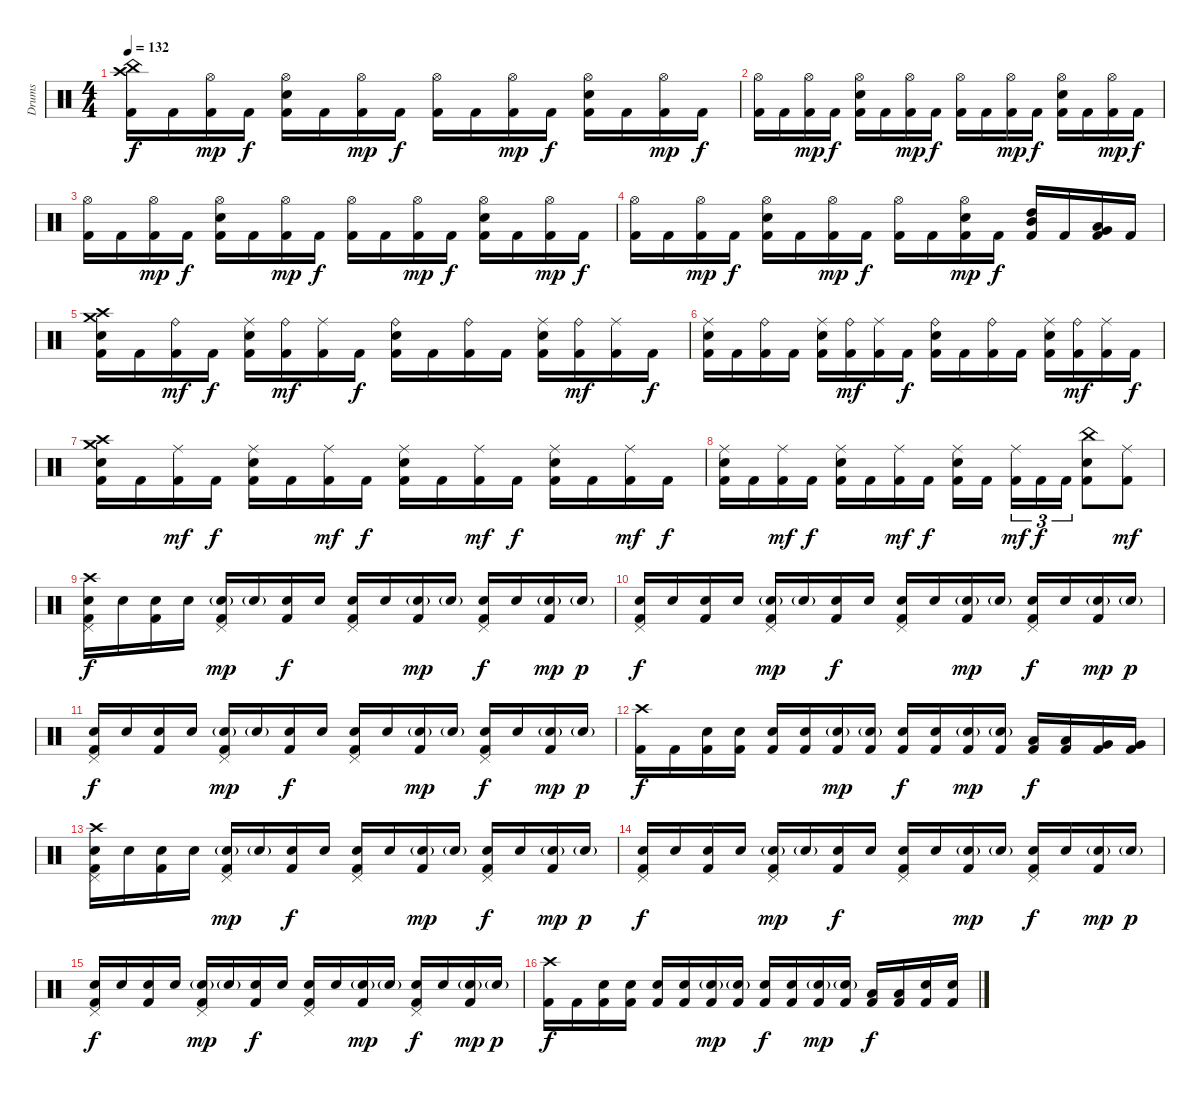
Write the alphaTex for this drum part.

\track ("Drums" "Drums") {instrument percussion}
\staff {score}
\articulation defaults
\ts (4 4)
\tempo 132
\clef neutral
\ks c
("Crash high (hit)" "China (hit)" "Kick (hit) 2").16{dy f} "Kick (hit) 2".16 ("Hi-Hat (open)" "Kick (hit) 2").16{dy mp} "Kick (hit) 2".16{dy f} ("Hi-Hat (open)" "Electric Snare (hit)" "Kick (hit) 2").16 "Kick (hit) 2".16 ("Hi-Hat (open)" "Kick (hit) 2").16{dy mp} "Kick (hit) 2".16{dy f} ("Hi-Hat (open)" "Kick (hit) 2").16 "Kick (hit) 2".16 ("Hi-Hat (open)" "Kick (hit) 2").16{dy mp} "Kick (hit) 2".16{dy f} ("Hi-Hat (open)" "Electric Snare (hit)" "Kick (hit) 2").16 "Kick (hit) 2".16 ("Hi-Hat (open)" "Kick (hit) 2").16{dy mp} "Kick (hit) 2".16{dy f} |
("Hi-Hat (open)" "Kick (hit) 2").16 "Kick (hit) 2".16 ("Hi-Hat (open)" "Kick (hit) 2").16{dy mp} "Kick (hit) 2".16{dy f} ("Hi-Hat (open)" "Electric Snare (hit)" "Kick (hit) 2").16 "Kick (hit) 2".16 ("Hi-Hat (open)" "Kick (hit) 2").16{dy mp} "Kick (hit) 2".16{dy f} ("Hi-Hat (open)" "Kick (hit) 2").16 "Kick (hit) 2".16 ("Hi-Hat (open)" "Kick (hit) 2").16{dy mp} "Kick (hit) 2".16{dy f} ("Hi-Hat (open)" "Electric Snare (hit)" "Kick (hit) 2").16 "Kick (hit) 2".16 ("Hi-Hat (open)" "Kick (hit) 2").16{dy mp} "Kick (hit) 2".16{dy f} |
("Hi-Hat (open)" "Kick (hit) 2").16 "Kick (hit) 2".16 ("Hi-Hat (open)" "Kick (hit) 2").16{dy mp} "Kick (hit) 2".16{dy f} ("Hi-Hat (open)" "Electric Snare (hit)" "Kick (hit) 2").16 "Kick (hit) 2".16 ("Hi-Hat (open)" "Kick (hit) 2").16{dy mp} "Kick (hit) 2".16{dy f} ("Hi-Hat (open)" "Kick (hit) 2").16 "Kick (hit) 2".16 ("Hi-Hat (open)" "Kick (hit) 2").16{dy mp} "Kick (hit) 2".16{dy f} ("Hi-Hat (open)" "Electric Snare (hit)" "Kick (hit) 2").16 "Kick (hit) 2".16 ("Hi-Hat (open)" "Kick (hit) 2").16{dy mp} "Kick (hit) 2".16{dy f} |
("Hi-Hat (open)" "Kick (hit) 2").16 "Kick (hit) 2".16 ("Hi-Hat (open)" "Kick (hit) 2").16{dy mp} "Kick (hit) 2".16{dy f} ("Hi-Hat (open)" "Electric Snare (hit)" "Kick (hit) 2").16 "Kick (hit) 2".16 ("Hi-Hat (open)" "Kick (hit) 2").16{dy mp} "Kick (hit) 2".16{dy f} ("Hi-Hat (open)" "Kick (hit) 2").16 "Kick (hit) 2".16 ("Hi-Hat (open)" "Electric Snare (hit)" "Kick (hit) 2").16{dy mp} "Kick (hit) 2".16{dy f} ("Mid Tom (hit)" "High Tom (hit)" "Kick (hit) 2").16 "Kick (hit) 2".16 ("Very Low Tom (hit)" "Low Tom (hit)" "Kick (hit) 2").16 "Kick (hit) 2".16 |
("Crash high (hit)" "Crash medium (hit)" "Electric Snare (hit)" "Kick (hit) 2").16 "Kick (hit) 2".16 ("Ride (bell)" "Kick (hit) 2").16{dy mf} "Kick (hit) 2".16{dy f} ("Ride (middle)" "Electric Snare (hit)" "Kick (hit) 2").16 ("Ride (bell)" "Kick (hit) 2").16{dy mf} ("Ride (middle)" "Kick (hit) 2").16 "Kick (hit) 2".16{dy f} ("Ride (bell)" "Electric Snare (hit)" "Kick (hit) 2").16 "Kick (hit) 2".16 ("Ride (bell)" "Kick (hit) 2").16 "Kick (hit) 2".16 ("Ride (middle)" "Electric Snare (hit)" "Kick (hit) 2").16 ("Ride (bell)" "Kick (hit) 2").16{dy mf} ("Ride (middle)" "Kick (hit) 2").16 "Kick (hit) 2".16{dy f} |
("Ride (middle)" "Electric Snare (hit)" "Kick (hit) 2").16 "Kick (hit) 2".16 ("Ride (bell)" "Kick (hit) 2").16 "Kick (hit) 2".16 ("Ride (middle)" "Electric Snare (hit)" "Kick (hit) 2").16 ("Ride (bell)" "Kick (hit) 2").16{dy mf} ("Ride (middle)" "Kick (hit) 2").16 "Kick (hit) 2".16{dy f} ("Ride (bell)" "Electric Snare (hit)" "Kick (hit) 2").16 "Kick (hit) 2".16 ("Ride (bell)" "Kick (hit) 2").16 "Kick (hit) 2".16 ("Ride (middle)" "Electric Snare (hit)" "Kick (hit) 2").16 ("Ride (bell)" "Kick (hit) 2").16{dy mf} ("Ride (middle)" "Kick (hit) 2").16 "Kick (hit) 2".16{dy f} |
("Crash high (hit)" "Crash medium (hit)" "Electric Snare (hit)" "Kick (hit) 2").16 "Kick (hit) 2".16 ("Ride (middle)" "Kick (hit) 2").16{dy mf} "Kick (hit) 2".16{dy f} ("Ride (middle)" "Electric Snare (hit)" "Kick (hit) 2").16 "Kick (hit) 2".16 ("Ride (middle)" "Kick (hit) 2").16{dy mf} "Kick (hit) 2".16{dy f} ("Ride (middle)" "Electric Snare (hit)" "Kick (hit) 2").16 "Kick (hit) 2".16 ("Ride (middle)" "Kick (hit) 2").16{dy mf} "Kick (hit) 2".16{dy f} ("Ride (middle)" "Electric Snare (hit)" "Kick (hit) 2").16 "Kick (hit) 2".16 ("Ride (middle)" "Kick (hit) 2").16{dy mf} "Kick (hit) 2".16{dy f} |
("Ride (middle)" "Electric Snare (hit)" "Kick (hit) 2").16 "Kick (hit) 2".16 ("Ride (middle)" "Kick (hit) 2").16{dy mf} "Kick (hit) 2".16{dy f} ("Ride (middle)" "Electric Snare (hit)" "Kick (hit) 2").16 "Kick (hit) 2".16 ("Ride (middle)" "Kick (hit) 2").16{dy mf} "Kick (hit) 2".16{dy f} ("Ride (middle)" "Electric Snare (hit)" "Kick (hit) 2").16 "Kick (hit) 2".16{beam splitsecondary} ("Ride (middle)" "Kick (hit) 2").16{tu (3 2) dy mf} "Kick (hit) 2".16{tu (3 2) dy f} "Kick (hit) 2".16{tu (3 2)} ("China (hit)" "Electric Snare (hit)" "Kick (hit) 2").8 ("Ride (middle)" "Kick (hit) 2").8{dy mf} |
("Crash high (hit)" "Pedal Hi-Hat (hit)" "Electric Snare (hit)" "Kick (hit) 2").16{dy f} "Electric Snare (hit)".16 ("Electric Snare (hit)" "Kick (hit) 2").16 "Electric Snare (hit)".16 ("Pedal Hi-Hat (hit)" "Electric Snare (hit)"{g} "Kick (hit) 2").16{dy mp} "Electric Snare (hit)"{g}.16 ("Electric Snare (hit)" "Kick (hit) 2").16{dy f} "Electric Snare (hit)".16 ("Pedal Hi-Hat (hit)" "Electric Snare (hit)" "Kick (hit) 2").16 "Electric Snare (hit)".16 ("Electric Snare (hit)"{g} "Kick (hit) 2").16{dy mp} "Electric Snare (hit)"{g}.16 ("Pedal Hi-Hat (hit)" "Electric Snare (hit)" "Kick (hit) 2").16{dy f} "Electric Snare (hit)".16 ("Electric Snare (hit)"{g} "Kick (hit) 2").16{dy mp} "Electric Snare (hit)"{g}.16{dy p} |
("Pedal Hi-Hat (hit)" "Electric Snare (hit)" "Kick (hit) 2").16{dy f} "Electric Snare (hit)".16 ("Electric Snare (hit)" "Kick (hit) 2").16 "Electric Snare (hit)".16 ("Pedal Hi-Hat (hit)" "Electric Snare (hit)"{g} "Kick (hit) 2").16{dy mp} "Electric Snare (hit)"{g}.16 ("Electric Snare (hit)" "Kick (hit) 2").16{dy f} "Electric Snare (hit)".16 ("Pedal Hi-Hat (hit)" "Electric Snare (hit)" "Kick (hit) 2").16 "Electric Snare (hit)".16 ("Electric Snare (hit)"{g} "Kick (hit) 2").16{dy mp} "Electric Snare (hit)"{g}.16 ("Pedal Hi-Hat (hit)" "Electric Snare (hit)" "Kick (hit) 2").16{dy f} "Electric Snare (hit)".16 ("Electric Snare (hit)"{g} "Kick (hit) 2").16{dy mp} "Electric Snare (hit)"{g}.16{dy p} |
("Pedal Hi-Hat (hit)" "Electric Snare (hit)" "Kick (hit) 2").16{dy f} "Electric Snare (hit)".16 ("Electric Snare (hit)" "Kick (hit) 2").16 "Electric Snare (hit)".16 ("Pedal Hi-Hat (hit)" "Electric Snare (hit)"{g} "Kick (hit) 2").16{dy mp} "Electric Snare (hit)"{g}.16 ("Electric Snare (hit)" "Kick (hit) 2").16{dy f} "Electric Snare (hit)".16 ("Pedal Hi-Hat (hit)" "Electric Snare (hit)" "Kick (hit) 2").16 "Electric Snare (hit)".16 ("Electric Snare (hit)"{g} "Kick (hit) 2").16{dy mp} "Electric Snare (hit)"{g}.16 ("Pedal Hi-Hat (hit)" "Electric Snare (hit)" "Kick (hit) 2").16{dy f} "Electric Snare (hit)".16 ("Electric Snare (hit)"{g} "Kick (hit) 2").16{dy mp} "Electric Snare (hit)"{g}.16{dy p} |
("Crash high (hit)" "Kick (hit) 2").16{dy f} "Kick (hit) 2".16 ("Electric Snare (hit)" "Kick (hit) 2").16 ("Electric Snare (hit)" "Kick (hit) 2").16 ("Electric Snare (hit)" "Kick (hit) 2").16 ("Electric Snare (hit)" "Kick (hit) 2").16 ("Electric Snare (hit)"{g} "Kick (hit) 2").16{dy mp} ("Electric Snare (hit)"{g} "Kick (hit) 2").16 ("Electric Snare (hit)" "Kick (hit) 2").16{dy f} ("Electric Snare (hit)" "Kick (hit) 2").16 ("Electric Snare (hit)"{g} "Kick (hit) 2").16{dy mp} ("Electric Snare (hit)"{g} "Kick (hit) 2").16 ("Low Tom (hit)" "Kick (hit) 2").16{dy f} ("Low Tom (hit)" "Kick (hit) 2").16 ("Very Low Tom (hit)" "Kick (hit) 2").16 ("Very Low Tom (hit)" "Kick (hit) 2").16 |
("Crash high (hit)" "Pedal Hi-Hat (hit)" "Electric Snare (hit)" "Kick (hit) 2").16 "Electric Snare (hit)".16 ("Electric Snare (hit)" "Kick (hit) 2").16 "Electric Snare (hit)".16 ("Pedal Hi-Hat (hit)" "Electric Snare (hit)"{g} "Kick (hit) 2").16{dy mp} "Electric Snare (hit)"{g}.16 ("Electric Snare (hit)" "Kick (hit) 2").16{dy f} "Electric Snare (hit)".16 ("Pedal Hi-Hat (hit)" "Electric Snare (hit)" "Kick (hit) 2").16 "Electric Snare (hit)".16 ("Electric Snare (hit)"{g} "Kick (hit) 2").16{dy mp} "Electric Snare (hit)"{g}.16 ("Pedal Hi-Hat (hit)" "Electric Snare (hit)" "Kick (hit) 2").16{dy f} "Electric Snare (hit)".16 ("Electric Snare (hit)"{g} "Kick (hit) 2").16{dy mp} "Electric Snare (hit)"{g}.16{dy p} |
("Pedal Hi-Hat (hit)" "Electric Snare (hit)" "Kick (hit) 2").16{dy f} "Electric Snare (hit)".16 ("Electric Snare (hit)" "Kick (hit) 2").16 "Electric Snare (hit)".16 ("Pedal Hi-Hat (hit)" "Electric Snare (hit)"{g} "Kick (hit) 2").16{dy mp} "Electric Snare (hit)"{g}.16 ("Electric Snare (hit)" "Kick (hit) 2").16{dy f} "Electric Snare (hit)".16 ("Pedal Hi-Hat (hit)" "Electric Snare (hit)" "Kick (hit) 2").16 "Electric Snare (hit)".16 ("Electric Snare (hit)"{g} "Kick (hit) 2").16{dy mp} "Electric Snare (hit)"{g}.16 ("Pedal Hi-Hat (hit)" "Electric Snare (hit)" "Kick (hit) 2").16{dy f} "Electric Snare (hit)".16 ("Electric Snare (hit)"{g} "Kick (hit) 2").16{dy mp} "Electric Snare (hit)"{g}.16{dy p} |
("Pedal Hi-Hat (hit)" "Electric Snare (hit)" "Kick (hit) 2").16{dy f} "Electric Snare (hit)".16 ("Electric Snare (hit)" "Kick (hit) 2").16 "Electric Snare (hit)".16 ("Pedal Hi-Hat (hit)" "Electric Snare (hit)"{g} "Kick (hit) 2").16{dy mp} "Electric Snare (hit)"{g}.16 ("Electric Snare (hit)" "Kick (hit) 2").16{dy f} "Electric Snare (hit)".16 ("Pedal Hi-Hat (hit)" "Electric Snare (hit)" "Kick (hit) 2").16 "Electric Snare (hit)".16 ("Electric Snare (hit)"{g} "Kick (hit) 2").16{dy mp} "Electric Snare (hit)"{g}.16 ("Pedal Hi-Hat (hit)" "Electric Snare (hit)" "Kick (hit) 2").16{dy f} "Electric Snare (hit)".16 ("Electric Snare (hit)"{g} "Kick (hit) 2").16{dy mp} "Electric Snare (hit)"{g}.16{dy p} |
("Crash high (hit)" "Kick (hit) 2").16{dy f} "Kick (hit) 2".16 ("Electric Snare (hit)" "Kick (hit) 2").16 ("Electric Snare (hit)" "Kick (hit) 2").16 ("Electric Snare (hit)" "Kick (hit) 2").16 ("Electric Snare (hit)" "Kick (hit) 2").16 ("Electric Snare (hit)"{g} "Kick (hit) 2").16{dy mp} ("Electric Snare (hit)"{g} "Kick (hit) 2").16 ("Electric Snare (hit)" "Kick (hit) 2").16{dy f} ("Electric Snare (hit)" "Kick (hit) 2").16 ("Electric Snare (hit)"{g} "Kick (hit) 2").16{dy mp} ("Electric Snare (hit)"{g} "Kick (hit) 2").16 ("Low Tom (hit)" "Kick (hit) 2").16{dy f} ("Low Tom (hit)" "Kick (hit) 2").16 ("Electric Snare (hit)" "Kick (hit) 2").16 ("Electric Snare (hit)" "Kick (hit) 2").16
